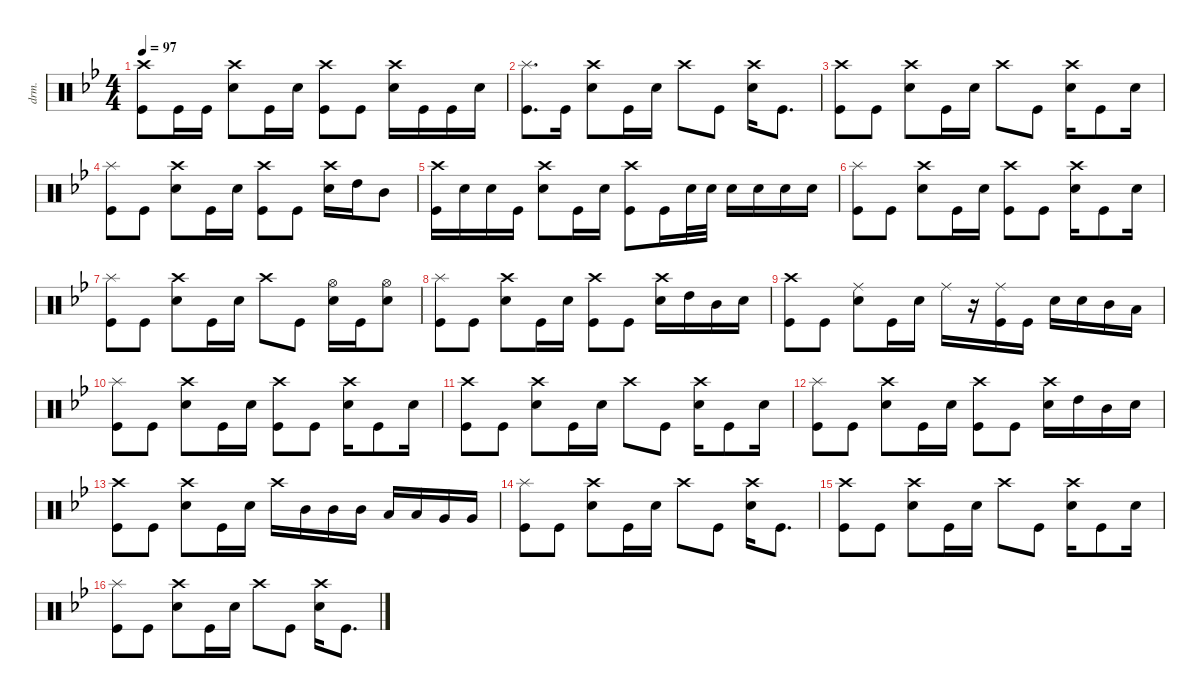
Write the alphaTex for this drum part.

\defaultSystemsLayout 4
\hideDynamics
\bracketExtendMode nobrackets
\otherSystemsTrackNameOrientation horizontal
\track ("Drumkit" "drm.") {instrument percussion}
\staff {score}
\articulation defaults
\ts (4 4)
\tempo 97
\clef neutral
\ks bb
("Kick (hit)" "Crash high (hit)").8{dy mp} "Kick (hit)".16 "Kick (hit)".16 ("Snare (hit) 2" "Crash high (hit)").8 "Kick (hit)".16 "Snare (hit) 2".16 ("Kick (hit)" "Crash high (hit)").8 "Kick (hit)".8 ("Snare (hit) 2" "Crash high (hit)").16 "Kick (hit)".16 "Kick (hit)".16 "Snare (hit) 2".16 |
("Kick (hit)" "Splash (hit)").8{d} "Kick (hit)".16 ("Snare (hit) 2" "Crash high (hit)").8 "Kick (hit)".16 "Snare (hit) 2".16 "Crash high (hit)".8 "Kick (hit)".8 ("Snare (hit) 2" "Crash high (hit)").16 "Kick (hit)".8{d} |
("Kick (hit)" "Crash high (hit)").8 "Kick (hit)".8 ("Snare (hit) 2" "Crash high (hit)").8 "Kick (hit)".16 "Snare (hit) 2".16 "Crash high (hit)".8 "Kick (hit)".8 ("Snare (hit) 2" "Crash high (hit)").16 "Kick (hit)".8 "Snare (hit) 2".16 |
("Kick (hit)" "Splash (hit)").8 "Kick (hit)".8 ("Snare (hit) 2" "Crash high (hit)").8 "Kick (hit)".16 "Snare (hit) 2".16 ("Kick (hit)" "Crash high (hit)").8 "Kick (hit)".8 ("Snare (hit) 2" "Crash high (hit)").16 "High Tom (hit)".16 "Mid Tom (hit)".8 |
("Kick (hit)" "Crash high (hit)").16 "Snare (hit) 2".16 "Snare (hit) 2".16 "Kick (hit)".16 ("Snare (hit) 2" "Crash high (hit)").8 "Kick (hit)".16 "Snare (hit) 2".16 ("Kick (hit)" "Crash high (hit)").8 "Kick (hit)".16 "Snare (hit) 2".32 "Snare (hit) 2".32 "Snare (hit) 2".16 "Snare (hit) 2".16 "Snare (hit) 2".16 "Snare (hit) 2".16 |
("Kick (hit)" "Splash (hit)").8 "Kick (hit)".8 ("Snare (hit) 2" "Crash high (hit)").8 "Kick (hit)".16 "Snare (hit) 2".16 ("Kick (hit)" "Crash high (hit)").8 "Kick (hit)".8 ("Snare (hit) 2" "Crash high (hit)").16 "Kick (hit)".8 "Snare (hit) 2".16 |
("Kick (hit)" "Splash (hit)").8 "Kick (hit)".8 ("Snare (hit) 2" "Crash high (hit)").8 "Kick (hit)".16 "Snare (hit) 2".16 "Crash high (hit)".8 "Kick (hit)".8 ("Snare (hit) 2" "Hi-Hat (open)").16 "Kick (hit)".16 ("Snare (hit) 2" "Hi-Hat (open)").8 |
("Kick (hit)" "Splash (hit)").8 "Kick (hit)".8 ("Snare (hit) 2" "Crash high (hit)").8 "Kick (hit)".16 "Snare (hit) 2".16 ("Kick (hit)" "Crash high (hit)").8 "Kick (hit)".8 ("Snare (hit) 2" "Crash high (hit)").16 "High Tom (hit)".16 "Mid Tom (hit)".16 "Snare (hit) 2".16 |
("Kick (hit)" "Crash high (hit)").8 "Kick (hit)".8 ("Snare (hit) 2" "Ride (middle)").8 "Kick (hit)".16 "Snare (hit) 2".16 "Ride (middle)".16 r.16 ("Kick (hit)" "Ride (middle)").16 "Kick (hit)".16 "Snare (hit) 2".16 "Snare (hit) 2".16 "Mid Tom (hit)".16 "Low Tom (hit)".16 |
("Kick (hit)" "Splash (hit)").8 "Kick (hit)".8 ("Snare (hit) 2" "Crash high (hit)").8 "Kick (hit)".16 "Snare (hit) 2".16 ("Kick (hit)" "Crash high (hit)").8 "Kick (hit)".8 ("Snare (hit) 2" "Crash high (hit)").16 "Kick (hit)".8 "Snare (hit) 2".16 |
("Kick (hit)" "Crash high (hit)").8 "Kick (hit)".8 ("Snare (hit) 2" "Crash high (hit)").8 "Kick (hit)".16 "Snare (hit) 2".16 "Crash high (hit)".8 "Kick (hit)".8 ("Snare (hit) 2" "Crash high (hit)").16 "Kick (hit)".8 "Snare (hit) 2".16 |
("Kick (hit)" "Splash (hit)").8 "Kick (hit)".8 ("Snare (hit) 2" "Crash high (hit)").8 "Kick (hit)".16 "Snare (hit) 2".16 ("Kick (hit)" "Crash high (hit)").8 "Kick (hit)".8 ("Snare (hit) 2" "Crash high (hit)").16 "High Tom (hit)".16 "Mid Tom (hit)".16 "Snare (hit) 2".16 |
("Kick (hit)" "Crash high (hit)").8 "Kick (hit)".8 ("Snare (hit) 2" "Crash high (hit)").8 "Kick (hit)".16 "Snare (hit) 2".16 "Crash high (hit)".16 "Mid Tom (hit)".16 "Mid Tom (hit)".16 "Mid Tom (hit)".16 "Low Tom (hit)".16 "Low Tom (hit)".16 "Very Low Tom (hit)".16 "Very Low Tom (hit)".16 |
("Splash (hit)" "Kick (hit)").8 "Kick (hit)".8 ("Snare (hit) 2" "Crash high (hit)").8 "Kick (hit)".16 "Snare (hit) 2".16 "Crash high (hit)".8 "Kick (hit)".8 ("Snare (hit) 2" "Crash high (hit)").16 "Kick (hit)".8{d} |
("Kick (hit)" "Crash high (hit)").8 "Kick (hit)".8 ("Snare (hit) 2" "Crash high (hit)").8 "Kick (hit)".16 "Snare (hit) 2".16 "Crash high (hit)".8 "Kick (hit)".8 ("Snare (hit) 2" "Crash high (hit)").16 "Kick (hit)".8 "Snare (hit) 2".16 |
("Splash (hit)" "Kick (hit)").8 "Kick (hit)".8 ("Snare (hit) 2" "Crash high (hit)").8 "Kick (hit)".16 "Snare (hit) 2".16 "Crash high (hit)".8 "Kick (hit)".8 ("Snare (hit) 2" "Crash high (hit)").16 "Kick (hit)".8{d}
